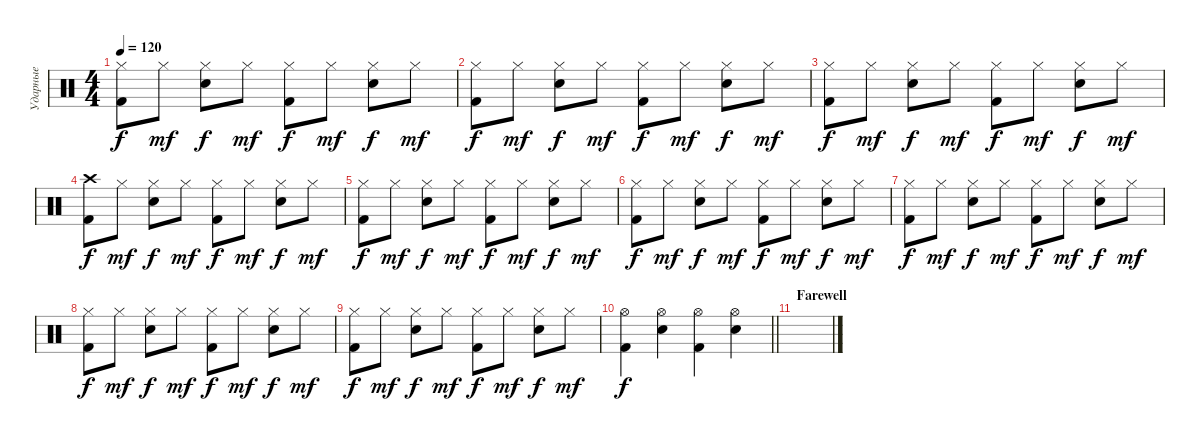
\track ("Ударные" "Ударные") {instrument percussion}
\staff {score}
\articulation defaults
\ts (4 4)
\tempo 120
\clef neutral
\ks c
("Kick (hit) 2" "Hi-Hat (closed)").8{dy f} "Hi-Hat (closed)".8{dy mf} ("Hi-Hat (closed)" "Snare (hit) 2").8{dy f} "Hi-Hat (closed)".8{dy mf} ("Kick (hit) 2" "Hi-Hat (closed)").8{dy f} "Hi-Hat (closed)".8{dy mf} ("Hi-Hat (closed)" "Snare (hit) 2").8{dy f} "Hi-Hat (closed)".8{dy mf} |
("Kick (hit) 2" "Hi-Hat (closed)").8{dy f} "Hi-Hat (closed)".8{dy mf} ("Hi-Hat (closed)" "Snare (hit) 2").8{dy f} "Hi-Hat (closed)".8{dy mf} ("Kick (hit) 2" "Hi-Hat (closed)").8{dy f} "Hi-Hat (closed)".8{dy mf} ("Hi-Hat (closed)" "Snare (hit) 2").8{dy f} "Hi-Hat (closed)".8{dy mf} |
("Kick (hit) 2" "Hi-Hat (closed)").8{dy f} "Hi-Hat (closed)".8{dy mf} ("Hi-Hat (closed)" "Snare (hit) 2").8{dy f} "Hi-Hat (closed)".8{dy mf} ("Kick (hit) 2" "Hi-Hat (closed)").8{dy f} "Hi-Hat (closed)".8{dy mf} ("Hi-Hat (closed)" "Snare (hit) 2").8{dy f} "Hi-Hat (closed)".8{dy mf} |
("Kick (hit) 2" "Crash high (hit)").8{dy f} "Hi-Hat (closed)".8{dy mf} ("Hi-Hat (closed)" "Snare (hit) 2").8{dy f} "Hi-Hat (closed)".8{dy mf} ("Kick (hit) 2" "Hi-Hat (closed)").8{dy f} "Hi-Hat (closed)".8{dy mf} ("Hi-Hat (closed)" "Snare (hit) 2").8{dy f} "Hi-Hat (closed)".8{dy mf} |
("Kick (hit) 2" "Hi-Hat (closed)").8{dy f} "Hi-Hat (closed)".8{dy mf} ("Hi-Hat (closed)" "Snare (hit) 2").8{dy f} "Hi-Hat (closed)".8{dy mf} ("Kick (hit) 2" "Hi-Hat (closed)").8{dy f} "Hi-Hat (closed)".8{dy mf} ("Hi-Hat (closed)" "Snare (hit) 2").8{dy f} "Hi-Hat (closed)".8{dy mf} |
("Kick (hit) 2" "Hi-Hat (closed)").8{dy f} "Hi-Hat (closed)".8{dy mf} ("Hi-Hat (closed)" "Snare (hit) 2").8{dy f} "Hi-Hat (closed)".8{dy mf} ("Kick (hit) 2" "Hi-Hat (closed)").8{dy f} "Hi-Hat (closed)".8{dy mf} ("Hi-Hat (closed)" "Snare (hit) 2").8{dy f} "Hi-Hat (closed)".8{dy mf} |
("Kick (hit) 2" "Hi-Hat (closed)").8{dy f} "Hi-Hat (closed)".8{dy mf} ("Hi-Hat (closed)" "Snare (hit) 2").8{dy f} "Hi-Hat (closed)".8{dy mf} ("Kick (hit) 2" "Hi-Hat (closed)").8{dy f} "Hi-Hat (closed)".8{dy mf} ("Hi-Hat (closed)" "Snare (hit) 2").8{dy f} "Hi-Hat (closed)".8{dy mf} |
("Kick (hit) 2" "Hi-Hat (closed)").8{dy f} "Hi-Hat (closed)".8{dy mf} ("Hi-Hat (closed)" "Snare (hit) 2").8{dy f} "Hi-Hat (closed)".8{dy mf} ("Kick (hit) 2" "Hi-Hat (closed)").8{dy f} "Hi-Hat (closed)".8{dy mf} ("Hi-Hat (closed)" "Snare (hit) 2").8{dy f} "Hi-Hat (closed)".8{dy mf} |
("Kick (hit) 2" "Hi-Hat (closed)").8{dy f} "Hi-Hat (closed)".8{dy mf} ("Hi-Hat (closed)" "Snare (hit) 2").8{dy f} "Hi-Hat (closed)".8{dy mf} ("Kick (hit) 2" "Hi-Hat (closed)").8{dy f} "Hi-Hat (closed)".8{dy mf} ("Hi-Hat (closed)" "Snare (hit) 2").8{dy f} "Hi-Hat (closed)".8{dy mf} |
\barLineRight lightlight
("Kick (hit) 2" "Hi-Hat (open)").4{dy f} ("Hi-Hat (open)" "Snare (hit) 2").4 ("Kick (hit) 2" "Hi-Hat (open)").4 ("Hi-Hat (open)" "Snare (hit) 2").4 |
\section ("" "Farewell")
